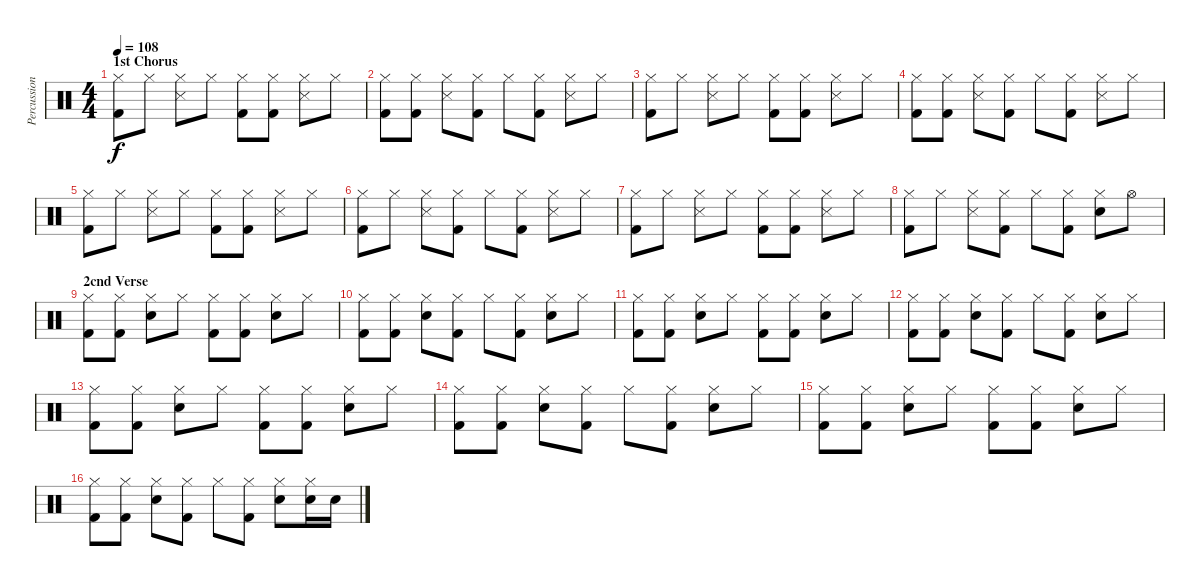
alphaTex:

\track ("Percussion" "Percussion") {instrument percussion}
\staff {score}
\articulation defaults
\ts (4 4)
\section ("" "1st Chorus")
\tempo 108
\clef neutral
\ks c
("Hi-Hat (closed)" "Kick (hit) 2").8{dy f} "Hi-Hat (closed)".8 ("Hi-Hat (closed)" "Snare (side stick) 3").8 "Hi-Hat (closed)".8 ("Hi-Hat (closed)" "Kick (hit) 2").8 ("Hi-Hat (closed)" "Kick (hit) 2").8 ("Hi-Hat (closed)" "Snare (side stick) 3").8 "Hi-Hat (closed)".8 |
("Hi-Hat (closed)" "Kick (hit) 2").8 ("Hi-Hat (closed)" "Kick (hit) 2").8 ("Hi-Hat (closed)" "Snare (side stick) 3").8 ("Hi-Hat (closed)" "Kick (hit) 2").8 "Hi-Hat (closed)".8 ("Hi-Hat (closed)" "Kick (hit) 2").8 ("Hi-Hat (closed)" "Snare (side stick) 3").8 "Hi-Hat (closed)".8 |
("Hi-Hat (closed)" "Kick (hit) 2").8 "Hi-Hat (closed)".8 ("Hi-Hat (closed)" "Snare (side stick) 3").8 "Hi-Hat (closed)".8 ("Hi-Hat (closed)" "Kick (hit) 2").8 ("Hi-Hat (closed)" "Kick (hit) 2").8 ("Hi-Hat (closed)" "Snare (side stick) 3").8 "Hi-Hat (closed)".8 |
("Hi-Hat (closed)" "Kick (hit) 2").8 ("Hi-Hat (closed)" "Kick (hit) 2").8 ("Hi-Hat (closed)" "Snare (side stick) 3").8 ("Hi-Hat (closed)" "Kick (hit) 2").8 "Hi-Hat (closed)".8 ("Hi-Hat (closed)" "Kick (hit) 2").8 ("Hi-Hat (closed)" "Snare (side stick) 3").8 "Hi-Hat (closed)".8 |
("Hi-Hat (closed)" "Kick (hit) 2").8 "Hi-Hat (closed)".8 ("Hi-Hat (closed)" "Snare (side stick) 3").8 "Hi-Hat (closed)".8 ("Hi-Hat (closed)" "Kick (hit) 2").8 ("Hi-Hat (closed)" "Kick (hit) 2").8 ("Hi-Hat (closed)" "Snare (side stick) 3").8 "Hi-Hat (closed)".8 |
("Hi-Hat (closed)" "Kick (hit) 2").8 "Hi-Hat (closed)".8 ("Hi-Hat (closed)" "Snare (side stick) 3").8 ("Hi-Hat (closed)" "Kick (hit) 2").8 "Hi-Hat (closed)".8 ("Hi-Hat (closed)" "Kick (hit) 2").8 ("Hi-Hat (closed)" "Snare (side stick) 3").8 "Hi-Hat (closed)".8 |
("Hi-Hat (closed)" "Kick (hit) 2").8 "Hi-Hat (closed)".8 ("Hi-Hat (closed)" "Snare (side stick) 3").8 "Hi-Hat (closed)".8 ("Hi-Hat (closed)" "Kick (hit) 2").8 ("Hi-Hat (closed)" "Kick (hit) 2").8 ("Hi-Hat (closed)" "Snare (side stick) 3").8 "Hi-Hat (closed)".8 |
("Hi-Hat (closed)" "Kick (hit) 2").8 "Hi-Hat (closed)".8 ("Hi-Hat (closed)" "Snare (side stick) 3").8 ("Hi-Hat (closed)" "Kick (hit) 2").8 "Hi-Hat (closed)".8 ("Hi-Hat (closed)" "Kick (hit) 2").8 ("Hi-Hat (closed)" "Snare (hit) 2").8 "Hi-Hat (open)".8 |
\section ("" "2cnd Verse")
("Hi-Hat (closed)" "Kick (hit) 2").8 ("Hi-Hat (closed)" "Kick (hit) 2").8 ("Hi-Hat (closed)" "Snare (hit) 2").8 "Hi-Hat (closed)".8 ("Hi-Hat (closed)" "Kick (hit) 2").8 ("Hi-Hat (closed)" "Kick (hit) 2").8 ("Hi-Hat (closed)" "Snare (hit) 2").8 "Hi-Hat (closed)".8 |
("Hi-Hat (closed)" "Kick (hit) 2").8 ("Hi-Hat (closed)" "Kick (hit) 2").8 ("Hi-Hat (closed)" "Snare (hit) 2").8 ("Hi-Hat (closed)" "Kick (hit) 2").8 "Hi-Hat (closed)".8 ("Hi-Hat (closed)" "Kick (hit) 2").8 ("Hi-Hat (closed)" "Snare (hit) 2").8 "Hi-Hat (closed)".8 |
("Hi-Hat (closed)" "Kick (hit) 2").8 ("Hi-Hat (closed)" "Kick (hit) 2").8 ("Hi-Hat (closed)" "Snare (hit) 2").8 "Hi-Hat (closed)".8 ("Hi-Hat (closed)" "Kick (hit) 2").8 ("Hi-Hat (closed)" "Kick (hit) 2").8 ("Hi-Hat (closed)" "Snare (hit) 2").8 "Hi-Hat (closed)".8 |
("Hi-Hat (closed)" "Kick (hit) 2").8 ("Hi-Hat (closed)" "Kick (hit) 2").8 ("Hi-Hat (closed)" "Snare (hit) 2").8 ("Hi-Hat (closed)" "Kick (hit) 2").8 "Hi-Hat (closed)".8 ("Hi-Hat (closed)" "Kick (hit) 2").8 ("Hi-Hat (closed)" "Snare (hit) 2").8 "Hi-Hat (closed)".8 |
("Hi-Hat (closed)" "Kick (hit) 2").8 ("Hi-Hat (closed)" "Kick (hit) 2").8 ("Hi-Hat (closed)" "Snare (hit) 2").8 "Hi-Hat (closed)".8 ("Hi-Hat (closed)" "Kick (hit) 2").8 ("Hi-Hat (closed)" "Kick (hit) 2").8 ("Hi-Hat (closed)" "Snare (hit) 2").8 "Hi-Hat (closed)".8 |
("Hi-Hat (closed)" "Kick (hit) 2").8 ("Hi-Hat (closed)" "Kick (hit) 2").8 ("Hi-Hat (closed)" "Snare (hit) 2").8 ("Hi-Hat (closed)" "Kick (hit) 2").8 "Hi-Hat (closed)".8 ("Hi-Hat (closed)" "Kick (hit) 2").8 ("Hi-Hat (closed)" "Snare (hit) 2").8 "Hi-Hat (closed)".8 |
("Hi-Hat (closed)" "Kick (hit) 2").8 ("Hi-Hat (closed)" "Kick (hit) 2").8 ("Hi-Hat (closed)" "Snare (hit) 2").8 "Hi-Hat (closed)".8 ("Hi-Hat (closed)" "Kick (hit) 2").8 ("Hi-Hat (closed)" "Kick (hit) 2").8 ("Hi-Hat (closed)" "Snare (hit) 2").8 "Hi-Hat (closed)".8 |
("Hi-Hat (closed)" "Kick (hit) 2").8 ("Hi-Hat (closed)" "Kick (hit) 2").8 ("Hi-Hat (closed)" "Snare (hit) 2").8 ("Hi-Hat (closed)" "Kick (hit) 2").8 "Hi-Hat (closed)".8 ("Hi-Hat (closed)" "Kick (hit) 2").8 ("Hi-Hat (closed)" "Snare (hit) 2").8 ("Hi-Hat (closed)" "Snare (hit) 2").16 "Snare (hit) 2".16
